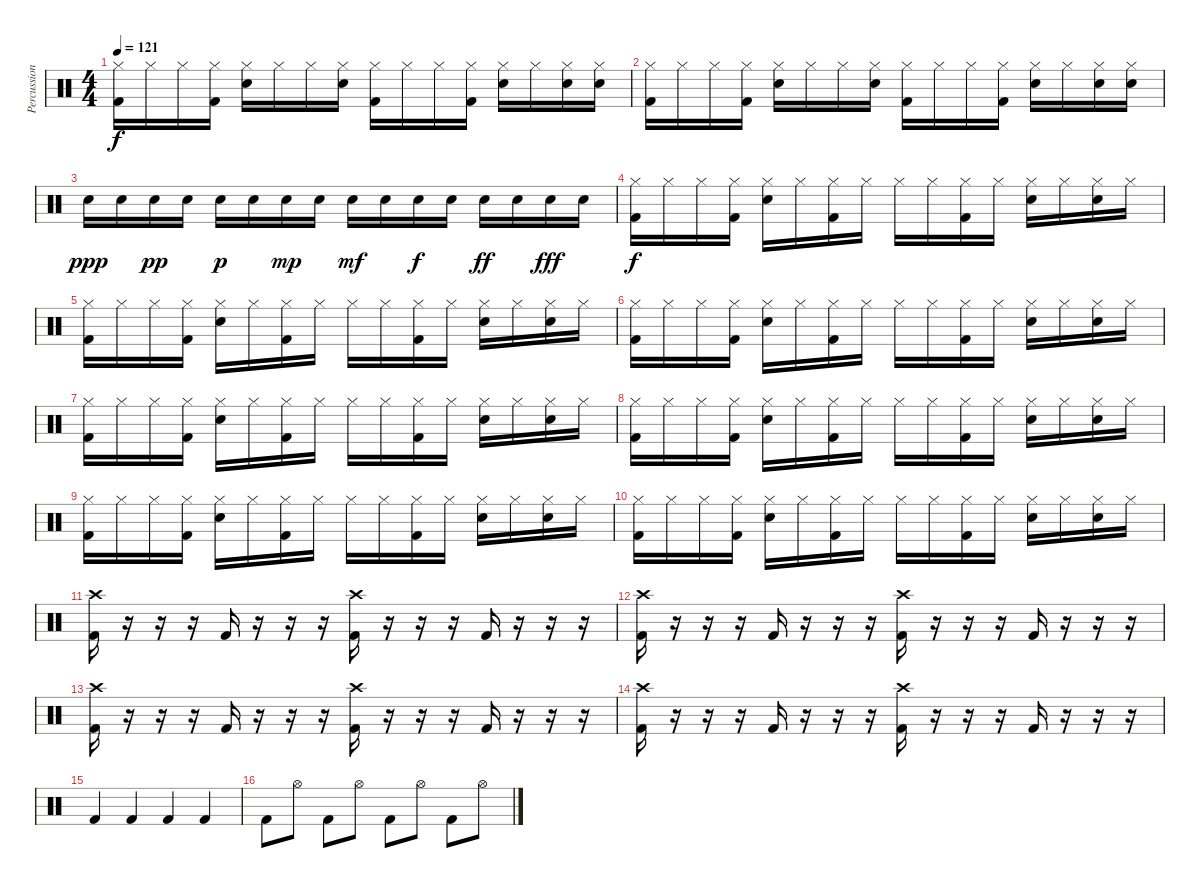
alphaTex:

\track ("Percussions" "Percussion") {instrument percussion}
\staff {score}
\articulation defaults
\ts (4 4)
\tempo 121
\clef neutral
\ks c
("Hi-Hat (closed)" "Kick (hit) 2").16{dy f} "Hi-Hat (closed)".16 "Hi-Hat (closed)".16 ("Hi-Hat (closed)" "Kick (hit) 2").16 ("Hi-Hat (closed)" "Electric Snare (hit)").16 "Hi-Hat (closed)".16 "Hi-Hat (closed)".16 ("Hi-Hat (closed)" "Electric Snare (hit)").16 ("Hi-Hat (closed)" "Kick (hit) 2").16 "Hi-Hat (closed)".16 "Hi-Hat (closed)".16 ("Hi-Hat (closed)" "Kick (hit) 2").16 ("Hi-Hat (closed)" "Electric Snare (hit)").16 "Hi-Hat (closed)".16 ("Hi-Hat (closed)" "Electric Snare (hit)").16 ("Hi-Hat (closed)" "Electric Snare (hit)").16 |
("Hi-Hat (closed)" "Kick (hit) 2").16 "Hi-Hat (closed)".16 "Hi-Hat (closed)".16 ("Hi-Hat (closed)" "Kick (hit) 2").16 ("Hi-Hat (closed)" "Electric Snare (hit)").16 "Hi-Hat (closed)".16 "Hi-Hat (closed)".16 ("Hi-Hat (closed)" "Electric Snare (hit)").16 ("Hi-Hat (closed)" "Kick (hit) 2").16 "Hi-Hat (closed)".16 "Hi-Hat (closed)".16 ("Hi-Hat (closed)" "Kick (hit) 2").16 ("Hi-Hat (closed)" "Electric Snare (hit)").16 "Hi-Hat (closed)".16 ("Hi-Hat (closed)" "Electric Snare (hit)").16 ("Hi-Hat (closed)" "Electric Snare (hit)").16 |
"Electric Snare (hit)".16{dy ppp} "Electric Snare (hit)".16 "Electric Snare (hit)".16{dy pp} "Electric Snare (hit)".16 "Electric Snare (hit)".16{dy p} "Electric Snare (hit)".16 "Electric Snare (hit)".16{dy mp} "Electric Snare (hit)".16 "Electric Snare (hit)".16{dy mf} "Electric Snare (hit)".16 "Electric Snare (hit)".16{dy f} "Electric Snare (hit)".16 "Electric Snare (hit)".16{dy ff} "Electric Snare (hit)".16 "Electric Snare (hit)".16{dy fff} "Electric Snare (hit)".16 |
("Hi-Hat (closed)" "Kick (hit) 2").16{dy f} "Hi-Hat (closed)".16 "Hi-Hat (closed)".16 ("Hi-Hat (closed)" "Kick (hit) 2").16 ("Hi-Hat (closed)" "Electric Snare (hit)").16 "Hi-Hat (closed)".16 ("Hi-Hat (closed)" "Kick (hit) 2").16 "Hi-Hat (closed)".16 "Hi-Hat (closed)".16 "Hi-Hat (closed)".16 ("Hi-Hat (closed)" "Kick (hit) 2").16 "Hi-Hat (closed)".16 ("Hi-Hat (closed)" "Electric Snare (hit)").16 "Hi-Hat (closed)".16 ("Hi-Hat (closed)" "Electric Snare (hit)").16 "Hi-Hat (closed)".16 |
("Hi-Hat (closed)" "Kick (hit) 2").16 "Hi-Hat (closed)".16 "Hi-Hat (closed)".16 ("Hi-Hat (closed)" "Kick (hit) 2").16 ("Hi-Hat (closed)" "Electric Snare (hit)").16 "Hi-Hat (closed)".16 ("Hi-Hat (closed)" "Kick (hit) 2").16 "Hi-Hat (closed)".16 "Hi-Hat (closed)".16 "Hi-Hat (closed)".16 ("Hi-Hat (closed)" "Kick (hit) 2").16 "Hi-Hat (closed)".16 ("Hi-Hat (closed)" "Electric Snare (hit)").16 "Hi-Hat (closed)".16 ("Hi-Hat (closed)" "Electric Snare (hit)").16 "Hi-Hat (closed)".16 |
("Hi-Hat (closed)" "Kick (hit) 2").16 "Hi-Hat (closed)".16 "Hi-Hat (closed)".16 ("Hi-Hat (closed)" "Kick (hit) 2").16 ("Hi-Hat (closed)" "Electric Snare (hit)").16 "Hi-Hat (closed)".16 ("Hi-Hat (closed)" "Kick (hit) 2").16 "Hi-Hat (closed)".16 "Hi-Hat (closed)".16 "Hi-Hat (closed)".16 ("Hi-Hat (closed)" "Kick (hit) 2").16 "Hi-Hat (closed)".16 ("Hi-Hat (closed)" "Electric Snare (hit)").16 "Hi-Hat (closed)".16 ("Hi-Hat (closed)" "Electric Snare (hit)").16 "Hi-Hat (closed)".16 |
("Hi-Hat (closed)" "Kick (hit) 2").16 "Hi-Hat (closed)".16 "Hi-Hat (closed)".16 ("Hi-Hat (closed)" "Kick (hit) 2").16 ("Hi-Hat (closed)" "Electric Snare (hit)").16 "Hi-Hat (closed)".16 ("Hi-Hat (closed)" "Kick (hit) 2").16 "Hi-Hat (closed)".16 "Hi-Hat (closed)".16 "Hi-Hat (closed)".16 ("Hi-Hat (closed)" "Kick (hit) 2").16 "Hi-Hat (closed)".16 ("Hi-Hat (closed)" "Electric Snare (hit)").16 "Hi-Hat (closed)".16 ("Hi-Hat (closed)" "Electric Snare (hit)").16 "Hi-Hat (closed)".16 |
("Hi-Hat (closed)" "Kick (hit) 2").16 "Hi-Hat (closed)".16 "Hi-Hat (closed)".16 ("Hi-Hat (closed)" "Kick (hit) 2").16 ("Hi-Hat (closed)" "Electric Snare (hit)").16 "Hi-Hat (closed)".16 ("Hi-Hat (closed)" "Kick (hit) 2").16 "Hi-Hat (closed)".16 "Hi-Hat (closed)".16 "Hi-Hat (closed)".16 ("Hi-Hat (closed)" "Kick (hit) 2").16 "Hi-Hat (closed)".16 ("Hi-Hat (closed)" "Electric Snare (hit)").16 "Hi-Hat (closed)".16 ("Hi-Hat (closed)" "Electric Snare (hit)").16 "Hi-Hat (closed)".16 |
("Hi-Hat (closed)" "Kick (hit) 2").16 "Hi-Hat (closed)".16 "Hi-Hat (closed)".16 ("Hi-Hat (closed)" "Kick (hit) 2").16 ("Hi-Hat (closed)" "Electric Snare (hit)").16 "Hi-Hat (closed)".16 ("Hi-Hat (closed)" "Kick (hit) 2").16 "Hi-Hat (closed)".16 "Hi-Hat (closed)".16 "Hi-Hat (closed)".16 ("Hi-Hat (closed)" "Kick (hit) 2").16 "Hi-Hat (closed)".16 ("Hi-Hat (closed)" "Electric Snare (hit)").16 "Hi-Hat (closed)".16 ("Hi-Hat (closed)" "Electric Snare (hit)").16 "Hi-Hat (closed)".16 |
("Hi-Hat (closed)" "Kick (hit) 2").16 "Hi-Hat (closed)".16 "Hi-Hat (closed)".16 ("Hi-Hat (closed)" "Kick (hit) 2").16 ("Hi-Hat (closed)" "Electric Snare (hit)").16 "Hi-Hat (closed)".16 ("Hi-Hat (closed)" "Kick (hit) 2").16 "Hi-Hat (closed)".16 "Hi-Hat (closed)".16 "Hi-Hat (closed)".16 ("Hi-Hat (closed)" "Kick (hit) 2").16 "Hi-Hat (closed)".16 ("Hi-Hat (closed)" "Electric Snare (hit)").16 "Hi-Hat (closed)".16 ("Hi-Hat (closed)" "Electric Snare (hit)").16 "Hi-Hat (closed)".16 |
("Crash high (hit)" "Kick (hit) 2").16 r.16 r.16 r.16 "Kick (hit) 2".16 r.16 r.16 r.16 ("Crash high (hit)" "Kick (hit) 2").16 r.16 r.16 r.16 "Kick (hit) 2".16 r.16 r.16 r.16 |
("Crash high (hit)" "Kick (hit) 2").16 r.16 r.16 r.16 "Kick (hit) 2".16 r.16 r.16 r.16 ("Crash high (hit)" "Kick (hit) 2").16 r.16 r.16 r.16 "Kick (hit) 2".16 r.16 r.16 r.16 |
("Crash high (hit)" "Kick (hit) 2").16 r.16 r.16 r.16 "Kick (hit) 2".16 r.16 r.16 r.16 ("Crash high (hit)" "Kick (hit) 2").16 r.16 r.16 r.16 "Kick (hit) 2".16 r.16 r.16 r.16 |
("Crash high (hit)" "Kick (hit) 2").16 r.16 r.16 r.16 "Kick (hit) 2".16 r.16 r.16 r.16 ("Crash high (hit)" "Kick (hit) 2").16 r.16 r.16 r.16 "Kick (hit) 2".16 r.16 r.16 r.16 |
"Kick (hit) 2".4 "Kick (hit) 2".4 "Kick (hit) 2".4 "Kick (hit) 2".4 |
"Kick (hit) 2".8 "Hi-Hat (open)".8 "Kick (hit) 2".8 "Hi-Hat (open)".8 "Kick (hit) 2".8 "Hi-Hat (open)".8 "Kick (hit) 2".8 "Hi-Hat (open)".8
